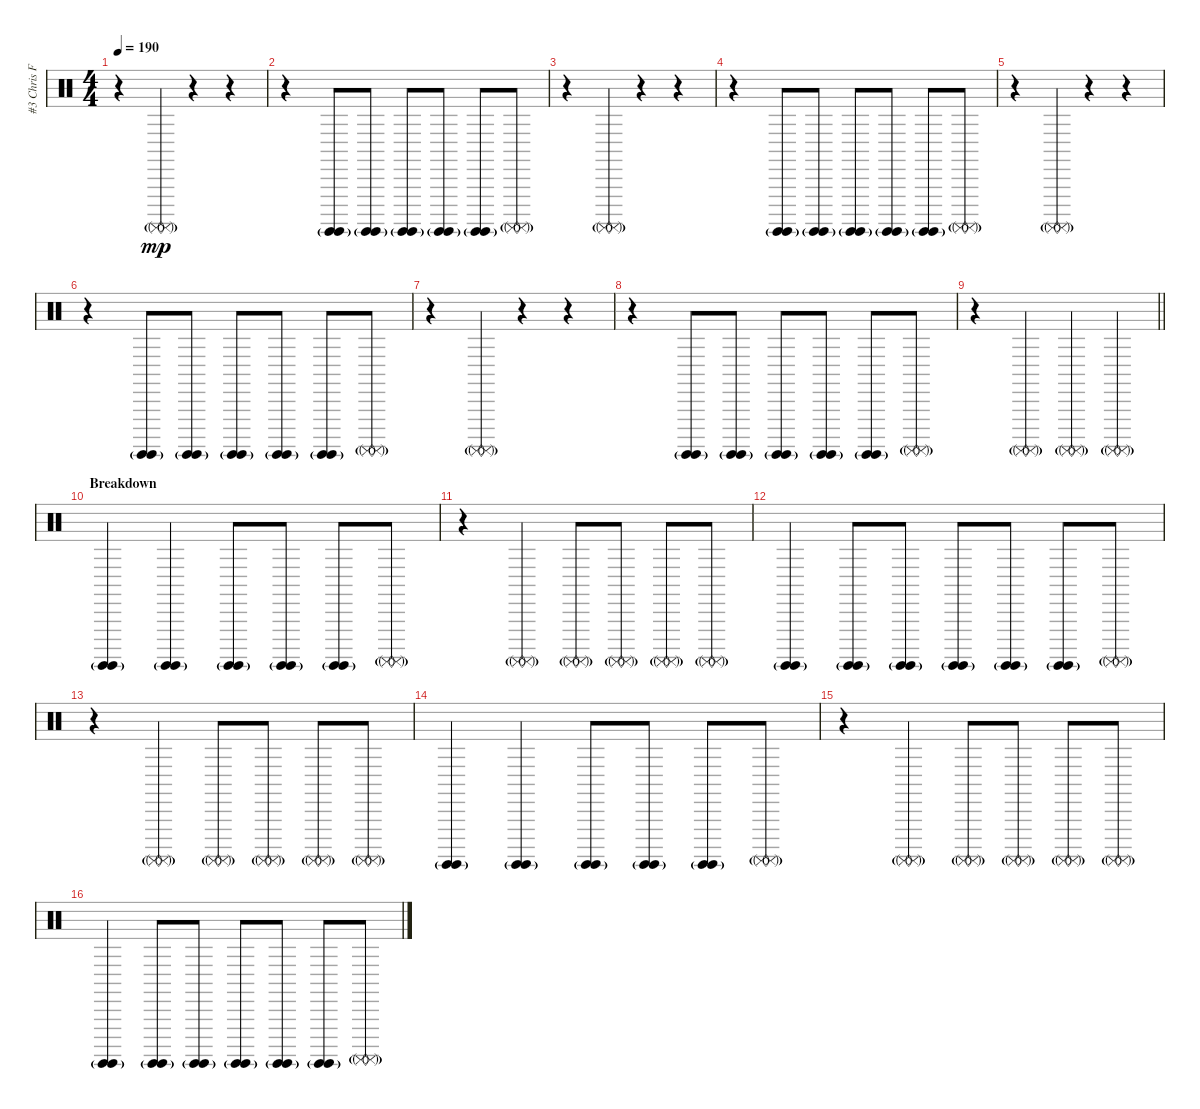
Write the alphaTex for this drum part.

\track ("#3 Chris Fehn" "#3 Chris F") {instrument percussion}
\staff {score}
\articulation defaults
\ts (4 4)
\tempo 190
\clef neutral
\ks c
r.4{dy mp} ("Surdo (mute)"{g} "Surdo (mute)"{g}).4 r.4 r.4 |
r.4 ("Surdo (hit)"{g} "Surdo (hit)"{g}).8 ("Surdo (hit)"{g} "Surdo (hit)"{g}).8 ("Surdo (hit)"{g} "Surdo (hit)"{g}).8 ("Surdo (hit)"{g} "Surdo (hit)"{g}).8 ("Surdo (hit)"{g} "Surdo (hit)"{g}).8 ("Surdo (mute)"{g} "Surdo (mute)"{g}).8 |
r.4 ("Surdo (mute)"{g} "Surdo (mute)"{g}).4 r.4 r.4 |
r.4 ("Surdo (hit)"{g} "Surdo (hit)"{g}).8 ("Surdo (hit)"{g} "Surdo (hit)"{g}).8 ("Surdo (hit)"{g} "Surdo (hit)"{g}).8 ("Surdo (hit)"{g} "Surdo (hit)"{g}).8 ("Surdo (hit)"{g} "Surdo (hit)"{g}).8 ("Surdo (mute)"{g} "Surdo (mute)"{g}).8 |
r.4 ("Surdo (mute)"{g} "Surdo (mute)"{g}).4 r.4 r.4 |
r.4 ("Surdo (hit)"{g} "Surdo (hit)"{g}).8 ("Surdo (hit)"{g} "Surdo (hit)"{g}).8 ("Surdo (hit)"{g} "Surdo (hit)"{g}).8 ("Surdo (hit)"{g} "Surdo (hit)"{g}).8 ("Surdo (hit)"{g} "Surdo (hit)"{g}).8 ("Surdo (mute)"{g} "Surdo (mute)"{g}).8 |
r.4 ("Surdo (mute)"{g} "Surdo (mute)"{g}).4 r.4 r.4 |
r.4 ("Surdo (hit)"{g} "Surdo (hit)"{g}).8 ("Surdo (hit)"{g} "Surdo (hit)"{g}).8 ("Surdo (hit)"{g} "Surdo (hit)"{g}).8 ("Surdo (hit)"{g} "Surdo (hit)"{g}).8 ("Surdo (hit)"{g} "Surdo (hit)"{g}).8 ("Surdo (mute)"{g} "Surdo (mute)"{g}).8 |
\barLineRight lightlight
r.4 ("Surdo (mute)"{g} "Surdo (mute)"{g}).4 ("Surdo (mute)"{g} "Surdo (mute)"{g}).4 ("Surdo (mute)"{g} "Surdo (mute)"{g}).4 |
\section ("" "Breakdown")
("Surdo (hit)"{g} "Surdo (hit)"{g}).4 ("Surdo (hit)"{g} "Surdo (hit)"{g}).4 ("Surdo (hit)"{g} "Surdo (hit)"{g}).8 ("Surdo (hit)"{g} "Surdo (hit)"{g}).8 ("Surdo (hit)"{g} "Surdo (hit)"{g}).8 ("Surdo (mute)"{g} "Surdo (mute)"{g}).8 |
r.4 ("Surdo (mute)"{g} "Surdo (mute)"{g}).4 ("Surdo (mute)"{g} "Surdo (mute)"{g}).8 ("Surdo (mute)"{g} "Surdo (mute)"{g}).8 ("Surdo (mute)"{g} "Surdo (mute)"{g}).8 ("Surdo (mute)"{g} "Surdo (mute)"{g}).8 |
("Surdo (hit)"{g} "Surdo (hit)"{g}).4 ("Surdo (hit)"{g} "Surdo (hit)"{g}).8 ("Surdo (hit)"{g} "Surdo (hit)"{g}).8 ("Surdo (hit)"{g} "Surdo (hit)"{g}).8 ("Surdo (hit)"{g} "Surdo (hit)"{g}).8 ("Surdo (hit)"{g} "Surdo (hit)"{g}).8 ("Surdo (mute)"{g} "Surdo (mute)"{g}).8 |
r.4 ("Surdo (mute)"{g} "Surdo (mute)"{g}).4 ("Surdo (mute)"{g} "Surdo (mute)"{g}).8 ("Surdo (mute)"{g} "Surdo (mute)"{g}).8 ("Surdo (mute)"{g} "Surdo (mute)"{g}).8 ("Surdo (mute)"{g} "Surdo (mute)"{g}).8 |
("Surdo (hit)"{g} "Surdo (hit)"{g}).4 ("Surdo (hit)"{g} "Surdo (hit)"{g}).4 ("Surdo (hit)"{g} "Surdo (hit)"{g}).8 ("Surdo (hit)"{g} "Surdo (hit)"{g}).8 ("Surdo (hit)"{g} "Surdo (hit)"{g}).8 ("Surdo (mute)"{g} "Surdo (mute)"{g}).8 |
r.4 ("Surdo (mute)"{g} "Surdo (mute)"{g}).4 ("Surdo (mute)"{g} "Surdo (mute)"{g}).8 ("Surdo (mute)"{g} "Surdo (mute)"{g}).8 ("Surdo (mute)"{g} "Surdo (mute)"{g}).8 ("Surdo (mute)"{g} "Surdo (mute)"{g}).8 |
("Surdo (hit)"{g} "Surdo (hit)"{g}).4 ("Surdo (hit)"{g} "Surdo (hit)"{g}).8 ("Surdo (hit)"{g} "Surdo (hit)"{g}).8 ("Surdo (hit)"{g} "Surdo (hit)"{g}).8 ("Surdo (hit)"{g} "Surdo (hit)"{g}).8 ("Surdo (hit)"{g} "Surdo (hit)"{g}).8 ("Surdo (mute)"{g} "Surdo (mute)"{g}).8
